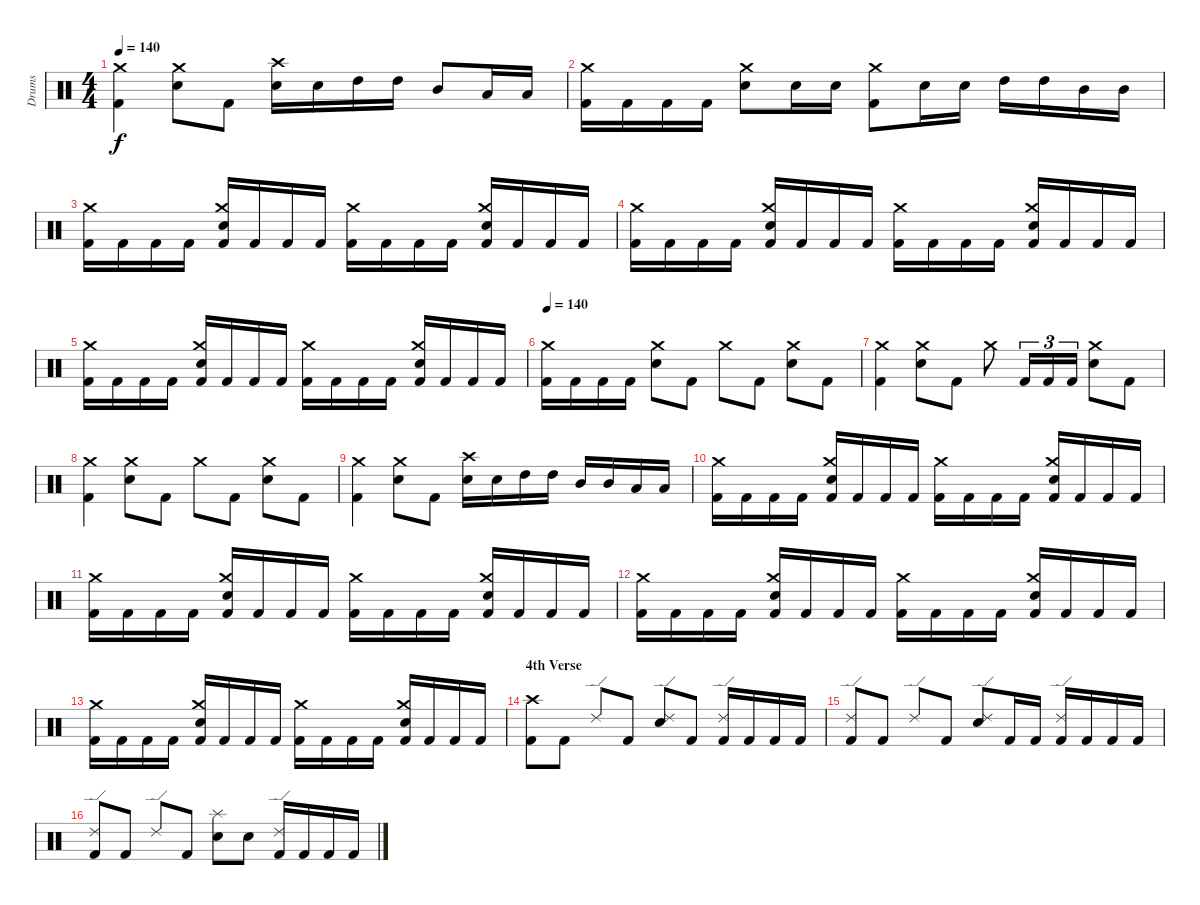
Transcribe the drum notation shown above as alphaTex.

\track ("Drums" "Drums") {instrument percussion}
\staff {score}
\articulation defaults
\ts (4 4)
\tempo 140
\clef neutral
\ks c
("Kick (hit) 2" "Crash medium (hit)").4{dy f} ("Electric Snare (hit)" "Crash medium (hit)").8 "Kick (hit) 2".8 ("Electric Snare (hit)" "Crash high (hit)").16 "Electric Snare (hit)".16 "High Tom (hit)".16 "High Tom (hit)".16 "Mid Tom (hit)".8 "Low Tom (hit)".16 "Low Tom (hit)".16 |
("Kick (hit) 2" "Crash medium (hit)").16 "Kick (hit) 2".16 "Kick (hit) 2".16 "Kick (hit) 2".16 ("Electric Snare (hit)" "Crash medium (hit)").8 "Electric Snare (hit)".16 "Electric Snare (hit)".16 ("Kick (hit) 2" "Crash medium (hit)").8 "Electric Snare (hit)".16 "Electric Snare (hit)".16 "High Tom (hit)".16 "High Tom (hit)".16 "Mid Tom (hit)".16 "Mid Tom (hit)".16 |
("Kick (hit) 2" "Crash medium (hit)").16 "Kick (hit) 2".16 "Kick (hit) 2".16 "Kick (hit) 2".16 ("Kick (hit) 2" "Electric Snare (hit)" "Crash medium (hit)").16 "Kick (hit) 2".16 "Kick (hit) 2".16 "Kick (hit) 2".16 ("Kick (hit) 2" "Crash medium (hit)").16 "Kick (hit) 2".16 "Kick (hit) 2".16 "Kick (hit) 2".16 ("Kick (hit) 2" "Electric Snare (hit)" "Crash medium (hit)").16 "Kick (hit) 2".16 "Kick (hit) 2".16 "Kick (hit) 2".16 |
("Kick (hit) 2" "Crash medium (hit)").16 "Kick (hit) 2".16 "Kick (hit) 2".16 "Kick (hit) 2".16 ("Kick (hit) 2" "Electric Snare (hit)" "Crash medium (hit)").16 "Kick (hit) 2".16 "Kick (hit) 2".16 "Kick (hit) 2".16 ("Kick (hit) 2" "Crash medium (hit)").16 "Kick (hit) 2".16 "Kick (hit) 2".16 "Kick (hit) 2".16 ("Kick (hit) 2" "Electric Snare (hit)" "Crash medium (hit)").16 "Kick (hit) 2".16 "Kick (hit) 2".16 "Kick (hit) 2".16 |
("Kick (hit) 2" "Crash medium (hit)").16 "Kick (hit) 2".16 "Kick (hit) 2".16 "Kick (hit) 2".16 ("Kick (hit) 2" "Electric Snare (hit)" "Crash medium (hit)").16 "Kick (hit) 2".16 "Kick (hit) 2".16 "Kick (hit) 2".16 ("Kick (hit) 2" "Crash medium (hit)").16 "Kick (hit) 2".16 "Kick (hit) 2".16 "Kick (hit) 2".16 ("Kick (hit) 2" "Electric Snare (hit)" "Crash medium (hit)").16 "Kick (hit) 2".16 "Kick (hit) 2".16 "Kick (hit) 2".16 |
\tempo 140
("Kick (hit) 2" "Crash medium (hit)").16 "Kick (hit) 2".16 "Kick (hit) 2".16 "Kick (hit) 2".16 ("Electric Snare (hit)" "Crash medium (hit)").8 "Kick (hit) 2".8 "Crash medium (hit)".8 "Kick (hit) 2".8 ("Electric Snare (hit)" "Crash medium (hit)").8 "Kick (hit) 2".8 |
("Kick (hit) 2" "Crash medium (hit)").4 ("Electric Snare (hit)" "Crash medium (hit)").8 "Kick (hit) 2".8 "Crash medium (hit)".8 "Kick (hit) 2".16{tu (3 2)} "Kick (hit) 2".16{tu (3 2)} "Kick (hit) 2".16{tu (3 2)} ("Electric Snare (hit)" "Crash medium (hit)").8 "Kick (hit) 2".8 |
("Kick (hit) 2" "Crash medium (hit)").4 ("Electric Snare (hit)" "Crash medium (hit)").8 "Kick (hit) 2".8 "Crash medium (hit)".8 "Kick (hit) 2".8 ("Electric Snare (hit)" "Crash medium (hit)").8 "Kick (hit) 2".8 |
("Kick (hit) 2" "Crash medium (hit)").4 ("Electric Snare (hit)" "Crash medium (hit)").8 "Kick (hit) 2".8 ("Electric Snare (hit)" "Crash high (hit)").16 "Electric Snare (hit)".16 "High Tom (hit)".16 "High Tom (hit)".16 "Mid Tom (hit)".16 "Mid Tom (hit)".16 "Low Tom (hit)".16 "Low Tom (hit)".16 |
("Kick (hit) 2" "Crash medium (hit)").16 "Kick (hit) 2".16 "Kick (hit) 2".16 "Kick (hit) 2".16 ("Kick (hit) 2" "Electric Snare (hit)" "Crash medium (hit)").16 "Kick (hit) 2".16 "Kick (hit) 2".16 "Kick (hit) 2".16 ("Kick (hit) 2" "Crash medium (hit)").16 "Kick (hit) 2".16 "Kick (hit) 2".16 "Kick (hit) 2".16 ("Kick (hit) 2" "Electric Snare (hit)" "Crash medium (hit)").16 "Kick (hit) 2".16 "Kick (hit) 2".16 "Kick (hit) 2".16 |
("Kick (hit) 2" "Crash medium (hit)").16 "Kick (hit) 2".16 "Kick (hit) 2".16 "Kick (hit) 2".16 ("Kick (hit) 2" "Electric Snare (hit)" "Crash medium (hit)").16 "Kick (hit) 2".16 "Kick (hit) 2".16 "Kick (hit) 2".16 ("Kick (hit) 2" "Crash medium (hit)").16 "Kick (hit) 2".16 "Kick (hit) 2".16 "Kick (hit) 2".16 ("Kick (hit) 2" "Electric Snare (hit)" "Crash medium (hit)").16 "Kick (hit) 2".16 "Kick (hit) 2".16 "Kick (hit) 2".16 |
("Kick (hit) 2" "Crash medium (hit)").16 "Kick (hit) 2".16 "Kick (hit) 2".16 "Kick (hit) 2".16 ("Kick (hit) 2" "Electric Snare (hit)" "Crash medium (hit)").16 "Kick (hit) 2".16 "Kick (hit) 2".16 "Kick (hit) 2".16 ("Kick (hit) 2" "Crash medium (hit)").16 "Kick (hit) 2".16 "Kick (hit) 2".16 "Kick (hit) 2".16 ("Kick (hit) 2" "Electric Snare (hit)" "Crash medium (hit)").16 "Kick (hit) 2".16 "Kick (hit) 2".16 "Kick (hit) 2".16 |
("Kick (hit) 2" "Crash medium (hit)").16 "Kick (hit) 2".16 "Kick (hit) 2".16 "Kick (hit) 2".16 ("Kick (hit) 2" "Electric Snare (hit)" "Crash medium (hit)").16 "Kick (hit) 2".16 "Kick (hit) 2".16 "Kick (hit) 2".16 ("Kick (hit) 2" "Crash medium (hit)").16 "Kick (hit) 2".16 "Kick (hit) 2".16 "Kick (hit) 2".16 ("Kick (hit) 2" "Electric Snare (hit)" "Crash medium (hit)").16 "Kick (hit) 2".16 "Kick (hit) 2".16 "Kick (hit) 2".16 |
\section ("" "4th Verse")
("Kick (hit) 2" "Crash high (hit)").8 "Kick (hit) 2".8 "Ride (edge) 2".8 "Kick (hit) 2".8 ("Electric Snare (hit)" "Ride (edge) 2").8 "Kick (hit) 2".8 ("Kick (hit) 2" "Ride (edge) 2").16 "Kick (hit) 2".16 "Kick (hit) 2".16 "Kick (hit) 2".16 |
("Kick (hit) 2" "Ride (edge) 2").8 "Kick (hit) 2".8 "Ride (edge) 2".8 "Kick (hit) 2".8 ("Electric Snare (hit)" "Ride (edge) 2").8 "Kick (hit) 2".16 "Kick (hit) 2".16 ("Kick (hit) 2" "Ride (edge) 2").16 "Kick (hit) 2".16 "Kick (hit) 2".16 "Kick (hit) 2".16 |
("Kick (hit) 2" "Ride (edge) 2").8 "Kick (hit) 2".8 "Ride (edge) 2".8 "Kick (hit) 2".8 ("Electric Snare (hit)" "Splash (hit)").8 "Electric Snare (hit)".8 ("Kick (hit) 2" "Ride (edge) 2").16 "Kick (hit) 2".16 "Kick (hit) 2".16 "Kick (hit) 2".16
